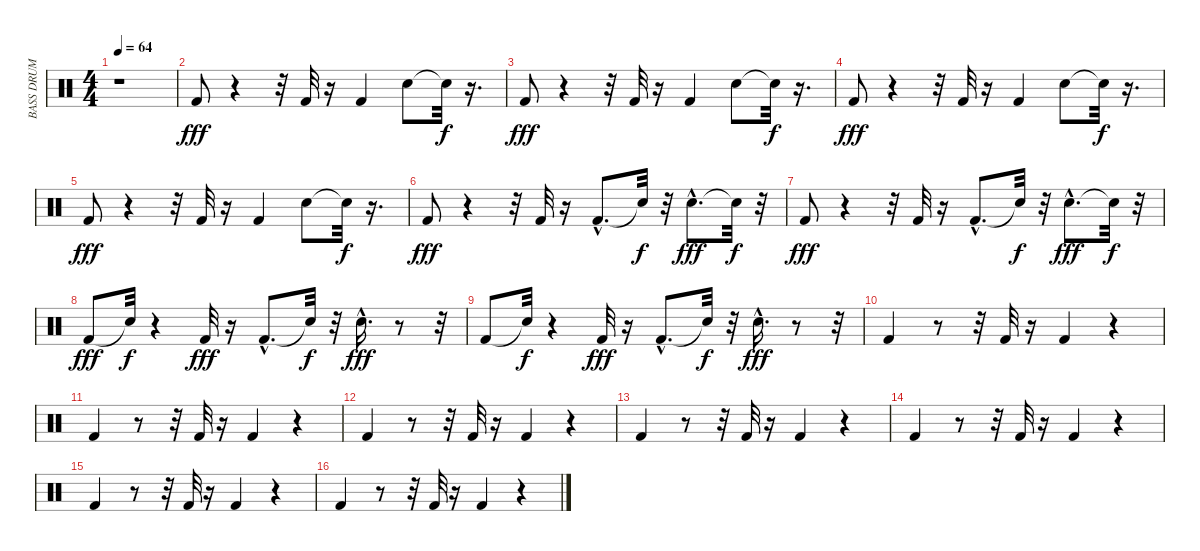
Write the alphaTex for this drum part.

\track ("BASS DRUM" "BASS DRUM") {instrument percussion}
\staff {score}
\articulation defaults
\ts (4 4)
\tempo 64
\clef neutral
\ks c
r.1{dy fff} |
"Kick (hit) 2".8 r.4 r.32 "Kick (hit) 2".32 r.16 "Kick (hit) 2".4 "Snare (hit) 2".8 "Snare (hit)"{t}.32{dy f} r.16{d} |
"Kick (hit) 2".8{dy fff} r.4 r.32 "Kick (hit) 2".32 r.16 "Kick (hit) 2".4 "Snare (hit) 2".8 "Snare (hit)"{t}.32{dy f} r.16{d} |
"Kick (hit) 2".8{dy fff} r.4 r.32 "Kick (hit) 2".32 r.16 "Kick (hit) 2".4 "Snare (hit) 2".8 "Snare (hit)"{t}.32{dy f} r.16{d} |
"Kick (hit) 2".8{dy fff} r.4 r.32 "Kick (hit) 2".32 r.16 "Kick (hit) 2".4 "Snare (hit) 2".8 "Snare (hit)"{t}.32{dy f} r.16{d} |
"Kick (hit) 2".8{dy fff} r.4 r.32 "Kick (hit) 2".32 r.16 "Kick (hit) 2"{hac}.8{d} "Snare (hit)"{t}.32{dy f} r.32 "Snare (hit) 2"{hac}.8{d dy fff} "Snare (hit)"{t}.32{dy f} r.32 |
"Kick (hit) 2".8{dy fff} r.4 r.32 "Kick (hit) 2".32 r.16 "Kick (hit) 2"{hac}.8{d} "Snare (hit)"{t}.32{dy f} r.32 "Snare (hit) 2"{hac}.8{d dy fff} "Snare (hit)"{t}.32{dy f} r.32 |
"Kick (hit) 2".8{dy fff} "Snare (hit)"{t}.32{dy f} r.4 "Kick (hit) 2".32{dy fff} r.16 "Kick (hit) 2"{hac}.8{d} "Snare (hit)"{t}.32{dy f} r.32 "Snare (hit) 2"{hac}.16{d dy fff} r.8 r.32 |
"Kick (hit) 2".8 "Snare (hit)"{t}.32{dy f} r.4 "Kick (hit) 2".32{dy fff} r.16 "Kick (hit) 2"{hac}.8{d} "Snare (hit)"{t}.32{dy f} r.32 "Snare (hit) 2"{hac}.16{d dy fff} r.8 r.32 |
"Kick (hit) 2".4 r.8 r.32 "Kick (hit) 2".32 r.16 "Kick (hit) 2".4 r.4 |
"Kick (hit) 2".4 r.8 r.32 "Kick (hit) 2".32 r.16 "Kick (hit) 2".4 r.4 |
"Kick (hit) 2".4 r.8 r.32 "Kick (hit) 2".32 r.16 "Kick (hit) 2".4 r.4 |
"Kick (hit) 2".4 r.8 r.32 "Kick (hit) 2".32 r.16 "Kick (hit) 2".4 r.4 |
"Kick (hit) 2".4 r.8 r.32 "Kick (hit) 2".32 r.16 "Kick (hit) 2".4 r.4 |
"Kick (hit) 2".4 r.8 r.32 "Kick (hit) 2".32 r.16 "Kick (hit) 2".4 r.4 |
"Kick (hit) 2".4 r.8 r.32 "Kick (hit) 2".32 r.16 "Kick (hit) 2".4 r.4
